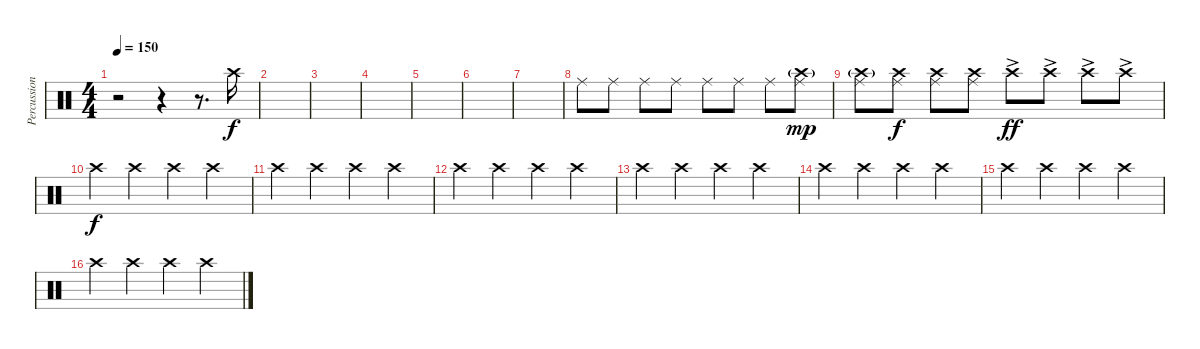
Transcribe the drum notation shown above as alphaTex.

\track ("Percussion Cymbals" "Percussion") {instrument percussion}
\staff {score}
\articulation defaults
\ts (4 4)
\tempo 150
\clef neutral
\ks c
r.2{dy f} r.4 r.8{d} "Crash high (hit)".16 |
|
|
|
|
|
|
"Ride (middle)".8 "Ride (middle)".8 "Ride (middle)".8 "Ride (middle)".8 "Ride (middle)".8 "Ride (middle)".8 "Ride (middle)".8 ("Ride (middle)" "Crash high (hit)"{g}).8{dy mp} |
("Ride (middle)" "Crash high (hit)"{g}).8 ("Ride (middle)" "Crash high (hit)").8{dy f} ("Ride (middle)" "Crash high (hit)").8 ("Ride (middle)" "Crash high (hit)").8 "Crash high (hit)"{ac}.8{dy ff} "Crash high (hit)"{ac}.8 "Crash high (hit)"{ac}.8 "Crash high (hit)"{ac}.8 |
"Crash high (hit)".4{dy f} "Crash high (hit)".4 "Crash high (hit)".4 "Crash high (hit)".4 |
"Crash high (hit)".4 "Crash high (hit)".4 "Crash high (hit)".4 "Crash high (hit)".4 |
"Crash high (hit)".4 "Crash high (hit)".4 "Crash high (hit)".4 "Crash high (hit)".4 |
"Crash high (hit)".4 "Crash high (hit)".4 "Crash high (hit)".4 "Crash high (hit)".4 |
"Crash high (hit)".4 "Crash high (hit)".4 "Crash high (hit)".4 "Crash high (hit)".4 |
"Crash high (hit)".4 "Crash high (hit)".4 "Crash high (hit)".4 "Crash high (hit)".4 |
"Crash high (hit)".4 "Crash high (hit)".4 "Crash high (hit)".4 "Crash high (hit)".4
